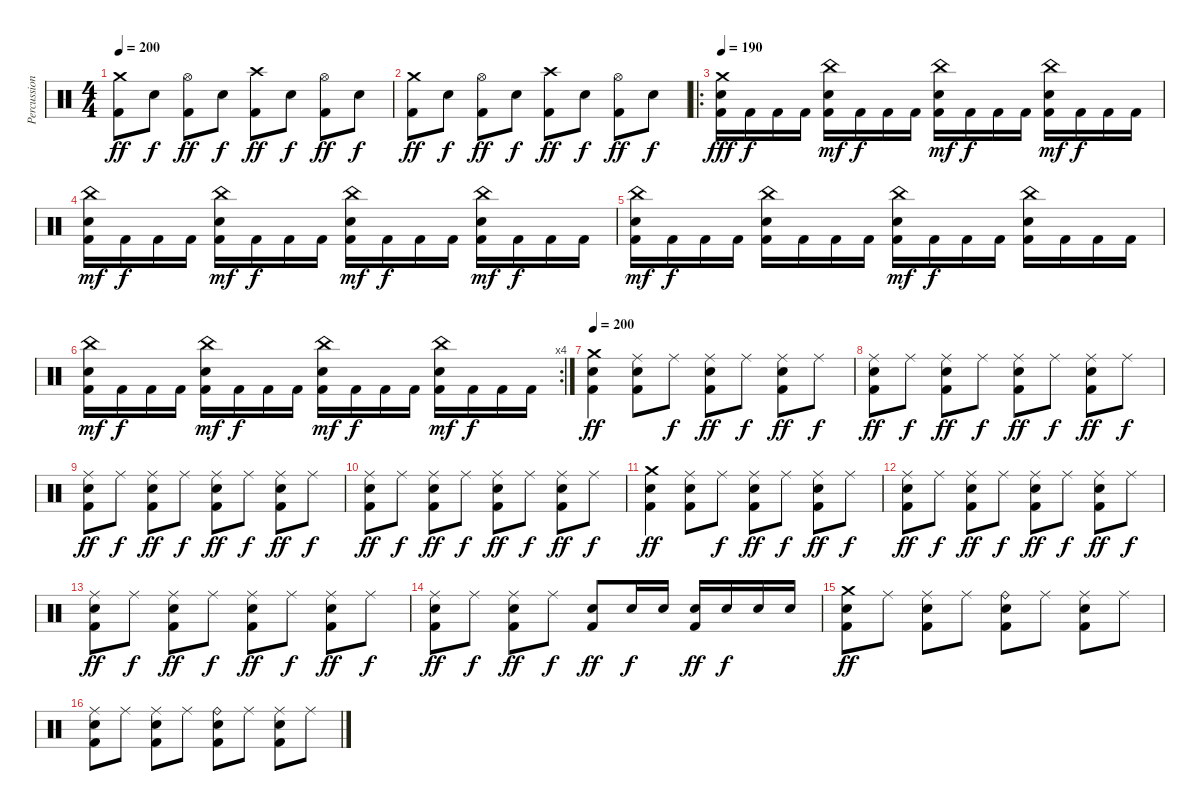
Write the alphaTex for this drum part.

\track ("Percussions" "Percussion") {instrument percussion}
\staff {score}
\articulation defaults
\ts (4 4)
\tempo 200
\clef neutral
\ks c
("Crash medium (hit)" "Kick (hit) 2").8{dy ff} "Electric Snare (hit)".8{dy f} ("Hi-Hat (open)" "Kick (hit) 2").8{dy ff} "Electric Snare (hit)".8{dy f} ("Crash high (hit)" "Kick (hit) 2").8{dy ff} "Electric Snare (hit)".8{dy f} ("Hi-Hat (open)" "Kick (hit) 2").8{dy ff} "Electric Snare (hit)".8{dy f} |
("Crash medium (hit)" "Kick (hit) 2").8{dy ff} "Electric Snare (hit)".8{dy f} ("Hi-Hat (open)" "Kick (hit) 2").8{dy ff} "Electric Snare (hit)".8{dy f} ("Crash high (hit)" "Kick (hit) 2").8{dy ff} "Electric Snare (hit)".8{dy f} ("Hi-Hat (open)" "Kick (hit) 2").8{dy ff} "Electric Snare (hit)".8{dy f} |
\ro
\tempo 190
("Crash medium (hit)" "Electric Snare (hit)" "Kick (hit) 2").16{dy fff} "Kick (hit) 2".16{dy f} "Kick (hit) 2".16 "Kick (hit) 2".16 ("China (hit)" "Electric Snare (hit)" "Kick (hit) 2").16{dy mf} "Kick (hit) 2".16{dy f} "Kick (hit) 2".16 "Kick (hit) 2".16 ("China (hit)" "Electric Snare (hit)" "Kick (hit) 2").16{dy mf} "Kick (hit) 2".16{dy f} "Kick (hit) 2".16 "Kick (hit) 2".16 ("China (hit)" "Electric Snare (hit)" "Kick (hit) 2").16{dy mf} "Kick (hit) 2".16{dy f} "Kick (hit) 2".16 "Kick (hit) 2".16 |
("China (hit)" "Electric Snare (hit)" "Kick (hit) 2").16{dy mf} "Kick (hit) 2".16{dy f} "Kick (hit) 2".16 "Kick (hit) 2".16 ("China (hit)" "Electric Snare (hit)" "Kick (hit) 2").16{dy mf} "Kick (hit) 2".16{dy f} "Kick (hit) 2".16 "Kick (hit) 2".16 ("China (hit)" "Electric Snare (hit)" "Kick (hit) 2").16{dy mf} "Kick (hit) 2".16{dy f} "Kick (hit) 2".16 "Kick (hit) 2".16 ("China (hit)" "Electric Snare (hit)" "Kick (hit) 2").16{dy mf} "Kick (hit) 2".16{dy f} "Kick (hit) 2".16 "Kick (hit) 2".16 |
("China (hit)" "Electric Snare (hit)" "Kick (hit) 2").16{dy mf} "Kick (hit) 2".16{dy f} "Kick (hit) 2".16 "Kick (hit) 2".16 ("China (hit)" "Electric Snare (hit)" "Kick (hit) 2").16 "Kick (hit) 2".16 "Kick (hit) 2".16 "Kick (hit) 2".16 ("China (hit)" "Electric Snare (hit)" "Kick (hit) 2").16{dy mf} "Kick (hit) 2".16{dy f} "Kick (hit) 2".16 "Kick (hit) 2".16 ("China (hit)" "Electric Snare (hit)" "Kick (hit) 2").16 "Kick (hit) 2".16 "Kick (hit) 2".16 "Kick (hit) 2".16 |
\rc 4
("China (hit)" "Electric Snare (hit)" "Kick (hit) 2").16{dy mf} "Kick (hit) 2".16{dy f} "Kick (hit) 2".16 "Kick (hit) 2".16 ("China (hit)" "Electric Snare (hit)" "Kick (hit) 2").16{dy mf} "Kick (hit) 2".16{dy f} "Kick (hit) 2".16 "Kick (hit) 2".16 ("China (hit)" "Electric Snare (hit)" "Kick (hit) 2").16{dy mf} "Kick (hit) 2".16{dy f} "Kick (hit) 2".16 "Kick (hit) 2".16 ("China (hit)" "Electric Snare (hit)" "Kick (hit) 2").16{dy mf} "Kick (hit) 2".16{dy f} "Kick (hit) 2".16 "Kick (hit) 2".16 |
\tempo 200
("Crash medium (hit)" "Electric Snare (hit)" "Kick (hit) 2").4{dy ff} ("Ride (middle)" "Electric Snare (hit)" "Kick (hit) 2").8 "Ride (middle)".8{dy f} ("Ride (middle)" "Electric Snare (hit)" "Kick (hit) 2").8{dy ff} "Ride (middle)".8{dy f} ("Ride (middle)" "Electric Snare (hit)" "Kick (hit) 2").8{dy ff} "Ride (middle)".8{dy f} |
("Ride (middle)" "Electric Snare (hit)" "Kick (hit) 2").8{dy ff} "Ride (middle)".8{dy f} ("Ride (middle)" "Electric Snare (hit)" "Kick (hit) 2").8{dy ff} "Ride (middle)".8{dy f} ("Ride (middle)" "Electric Snare (hit)" "Kick (hit) 2").8{dy ff} "Ride (middle)".8{dy f} ("Ride (middle)" "Electric Snare (hit)" "Kick (hit) 2").8{dy ff} "Ride (middle)".8{dy f} |
("Ride (middle)" "Electric Snare (hit)" "Kick (hit) 2").8{dy ff} "Ride (middle)".8{dy f} ("Ride (middle)" "Electric Snare (hit)" "Kick (hit) 2").8{dy ff} "Ride (middle)".8{dy f} ("Ride (middle)" "Electric Snare (hit)" "Kick (hit) 2").8{dy ff} "Ride (middle)".8{dy f} ("Ride (middle)" "Electric Snare (hit)" "Kick (hit) 2").8{dy ff} "Ride (middle)".8{dy f} |
("Ride (middle)" "Electric Snare (hit)" "Kick (hit) 2").8{dy ff} "Ride (middle)".8{dy f} ("Ride (middle)" "Electric Snare (hit)" "Kick (hit) 2").8{dy ff} "Ride (middle)".8{dy f} ("Ride (middle)" "Electric Snare (hit)" "Kick (hit) 2").8{dy ff} "Ride (middle)".8{dy f} ("Ride (middle)" "Electric Snare (hit)" "Kick (hit) 2").8{dy ff} "Ride (middle)".8{dy f} |
("Crash medium (hit)" "Electric Snare (hit)" "Kick (hit) 2").4{dy ff} ("Ride (middle)" "Electric Snare (hit)" "Kick (hit) 2").8 "Ride (middle)".8{dy f} ("Ride (middle)" "Electric Snare (hit)" "Kick (hit) 2").8{dy ff} "Ride (middle)".8{dy f} ("Ride (middle)" "Electric Snare (hit)" "Kick (hit) 2").8{dy ff} "Ride (middle)".8{dy f} |
("Ride (middle)" "Electric Snare (hit)" "Kick (hit) 2").8{dy ff} "Ride (middle)".8{dy f} ("Ride (middle)" "Electric Snare (hit)" "Kick (hit) 2").8{dy ff} "Ride (middle)".8{dy f} ("Ride (middle)" "Electric Snare (hit)" "Kick (hit) 2").8{dy ff} "Ride (middle)".8{dy f} ("Ride (middle)" "Electric Snare (hit)" "Kick (hit) 2").8{dy ff} "Ride (middle)".8{dy f} |
("Ride (middle)" "Electric Snare (hit)" "Kick (hit) 2").8{dy ff} "Ride (middle)".8{dy f} ("Ride (middle)" "Electric Snare (hit)" "Kick (hit) 2").8{dy ff} "Ride (middle)".8{dy f} ("Ride (middle)" "Electric Snare (hit)" "Kick (hit) 2").8{dy ff} "Ride (middle)".8{dy f} ("Ride (middle)" "Electric Snare (hit)" "Kick (hit) 2").8{dy ff} "Ride (middle)".8{dy f} |
("Ride (middle)" "Electric Snare (hit)" "Kick (hit) 2").8{dy ff} "Ride (middle)".8{dy f} ("Ride (middle)" "Electric Snare (hit)" "Kick (hit) 2").8{dy ff} "Ride (middle)".8{dy f} ("Electric Snare (hit)" "Kick (hit) 2").8{dy ff} "Electric Snare (hit)".16{dy f} "Electric Snare (hit)".16 ("Electric Snare (hit)" "Kick (hit) 2").16{dy ff} "Electric Snare (hit)".16{dy f} "Electric Snare (hit)".16 "Electric Snare (hit)".16 |
("Crash medium (hit)" "Electric Snare (hit)" "Kick (hit) 2").8{dy ff} "Ride (middle)".8 ("Ride (middle)" "Electric Snare (hit)" "Kick (hit) 2").8 "Ride (middle)".8 ("Ride (bell)" "Electric Snare (hit)" "Kick (hit) 2").8 "Ride (middle)".8 ("Ride (middle)" "Electric Snare (hit)" "Kick (hit) 2").8 "Ride (middle)".8 |
("Ride (middle)" "Electric Snare (hit)" "Kick (hit) 2").8 "Ride (middle)".8 ("Ride (middle)" "Electric Snare (hit)" "Kick (hit) 2").8 "Ride (middle)".8 ("Ride (bell)" "Electric Snare (hit)" "Kick (hit) 2").8 "Ride (middle)".8 ("Ride (middle)" "Electric Snare (hit)" "Kick (hit) 2").8 "Ride (middle)".8
